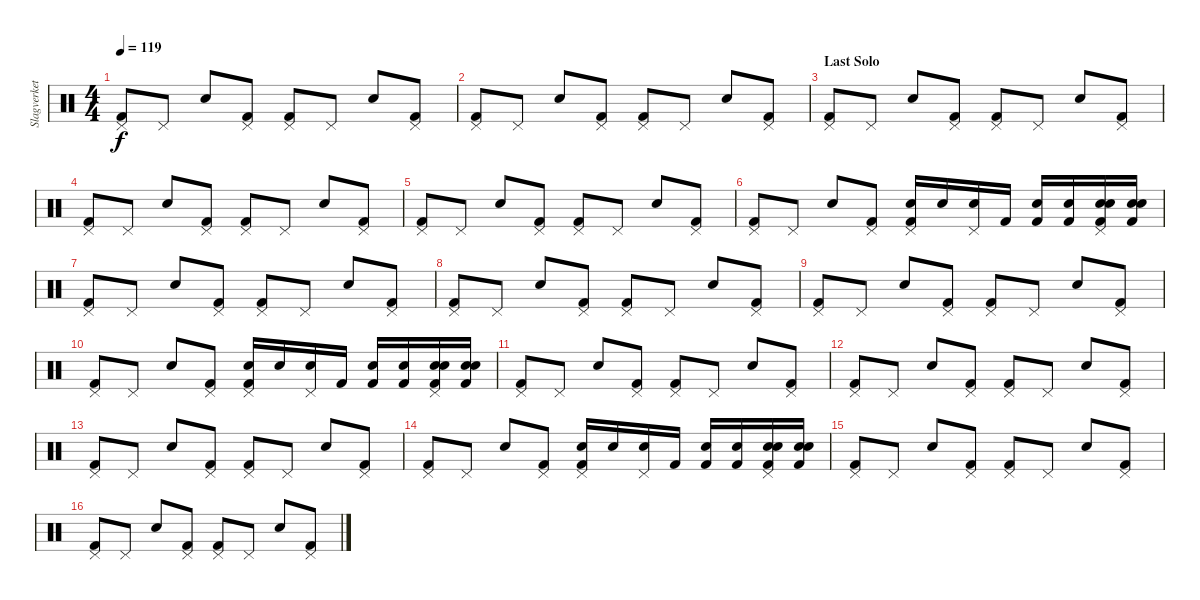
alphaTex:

\track ("Slagverket!" "Slagverket") {instrument percussion}
\staff {score}
\articulation defaults
\ts (4 4)
\tempo 119
\clef neutral
\ks c
("Pedal Hi-Hat (hit)" "Kick (hit) 2").8{dy f} "Pedal Hi-Hat (hit)".8 "Snare (hit) 2".8 ("Pedal Hi-Hat (hit)" "Kick (hit) 2").8 ("Pedal Hi-Hat (hit)" "Kick (hit) 2").8 "Pedal Hi-Hat (hit)".8 "Snare (hit) 2".8 ("Pedal Hi-Hat (hit)" "Kick (hit) 2").8 |
("Pedal Hi-Hat (hit)" "Kick (hit) 2").8 "Pedal Hi-Hat (hit)".8 "Snare (hit) 2".8 ("Pedal Hi-Hat (hit)" "Kick (hit) 2").8 ("Pedal Hi-Hat (hit)" "Kick (hit) 2").8 "Pedal Hi-Hat (hit)".8 "Snare (hit) 2".8 ("Pedal Hi-Hat (hit)" "Kick (hit) 2").8 |
\section ("" "Last Solo")
("Pedal Hi-Hat (hit)" "Kick (hit) 2").8 "Pedal Hi-Hat (hit)".8 "Snare (hit) 2".8 ("Pedal Hi-Hat (hit)" "Kick (hit) 2").8 ("Pedal Hi-Hat (hit)" "Kick (hit) 2").8 "Pedal Hi-Hat (hit)".8 "Snare (hit) 2".8 ("Pedal Hi-Hat (hit)" "Kick (hit) 2").8 |
("Pedal Hi-Hat (hit)" "Kick (hit) 2").8 "Pedal Hi-Hat (hit)".8 "Snare (hit) 2".8 ("Pedal Hi-Hat (hit)" "Kick (hit) 2").8 ("Pedal Hi-Hat (hit)" "Kick (hit) 2").8 "Pedal Hi-Hat (hit)".8 "Snare (hit) 2".8 ("Pedal Hi-Hat (hit)" "Kick (hit) 2").8 |
("Pedal Hi-Hat (hit)" "Kick (hit) 2").8 "Pedal Hi-Hat (hit)".8 "Snare (hit) 2".8 ("Pedal Hi-Hat (hit)" "Kick (hit) 2").8 ("Pedal Hi-Hat (hit)" "Kick (hit) 2").8 "Pedal Hi-Hat (hit)".8 "Snare (hit) 2".8 ("Pedal Hi-Hat (hit)" "Kick (hit) 2").8 |
("Pedal Hi-Hat (hit)" "Kick (hit) 2").8 "Pedal Hi-Hat (hit)".8 "Snare (hit) 2".8 ("Pedal Hi-Hat (hit)" "Kick (hit) 2").8 ("Pedal Hi-Hat (hit)" "Electric Snare (hit)" "Kick (hit) 2").16 "Electric Snare (hit)".16 ("Pedal Hi-Hat (hit)" "Electric Snare (hit)").16 "Kick (hit) 2".16 ("Snare (hit) 2" "Kick (hit) 2").16 ("Electric Snare (hit)" "Kick (hit) 2").16 ("Pedal Hi-Hat (hit)" "Snare (hit) 2" "Electric Snare (hit)" "Kick (hit) 2").16 ("Electric Snare (hit)" "Electric Snare (hit)" "Kick (hit) 2").16 |
("Pedal Hi-Hat (hit)" "Kick (hit) 2").8 "Pedal Hi-Hat (hit)".8 "Snare (hit) 2".8 ("Pedal Hi-Hat (hit)" "Kick (hit) 2").8 ("Pedal Hi-Hat (hit)" "Kick (hit) 2").8 "Pedal Hi-Hat (hit)".8 "Snare (hit) 2".8 ("Pedal Hi-Hat (hit)" "Kick (hit) 2").8 |
("Pedal Hi-Hat (hit)" "Kick (hit) 2").8 "Pedal Hi-Hat (hit)".8 "Snare (hit) 2".8 ("Pedal Hi-Hat (hit)" "Kick (hit) 2").8 ("Pedal Hi-Hat (hit)" "Kick (hit) 2").8 "Pedal Hi-Hat (hit)".8 "Snare (hit) 2".8 ("Pedal Hi-Hat (hit)" "Kick (hit) 2").8 |
("Pedal Hi-Hat (hit)" "Kick (hit) 2").8 "Pedal Hi-Hat (hit)".8 "Snare (hit) 2".8 ("Pedal Hi-Hat (hit)" "Kick (hit) 2").8 ("Pedal Hi-Hat (hit)" "Kick (hit) 2").8 "Pedal Hi-Hat (hit)".8 "Snare (hit) 2".8 ("Pedal Hi-Hat (hit)" "Kick (hit) 2").8 |
("Pedal Hi-Hat (hit)" "Kick (hit) 2").8 "Pedal Hi-Hat (hit)".8 "Snare (hit) 2".8 ("Pedal Hi-Hat (hit)" "Kick (hit) 2").8 ("Pedal Hi-Hat (hit)" "Electric Snare (hit)" "Kick (hit) 2").16 "Electric Snare (hit)".16 ("Pedal Hi-Hat (hit)" "Electric Snare (hit)").16 "Kick (hit) 2".16 ("Snare (hit) 2" "Kick (hit) 2").16 ("Electric Snare (hit)" "Kick (hit) 2").16 ("Pedal Hi-Hat (hit)" "Snare (hit) 2" "Electric Snare (hit)" "Kick (hit) 2").16 ("Electric Snare (hit)" "Electric Snare (hit)" "Kick (hit) 2").16 |
("Pedal Hi-Hat (hit)" "Kick (hit) 2").8 "Pedal Hi-Hat (hit)".8 "Snare (hit) 2".8 ("Pedal Hi-Hat (hit)" "Kick (hit) 2").8 ("Pedal Hi-Hat (hit)" "Kick (hit) 2").8 "Pedal Hi-Hat (hit)".8 "Snare (hit) 2".8 ("Pedal Hi-Hat (hit)" "Kick (hit) 2").8 |
("Pedal Hi-Hat (hit)" "Kick (hit) 2").8 "Pedal Hi-Hat (hit)".8 "Snare (hit) 2".8 ("Pedal Hi-Hat (hit)" "Kick (hit) 2").8 ("Pedal Hi-Hat (hit)" "Kick (hit) 2").8 "Pedal Hi-Hat (hit)".8 "Snare (hit) 2".8 ("Pedal Hi-Hat (hit)" "Kick (hit) 2").8 |
("Pedal Hi-Hat (hit)" "Kick (hit) 2").8 "Pedal Hi-Hat (hit)".8 "Snare (hit) 2".8 ("Pedal Hi-Hat (hit)" "Kick (hit) 2").8 ("Pedal Hi-Hat (hit)" "Kick (hit) 2").8 "Pedal Hi-Hat (hit)".8 "Snare (hit) 2".8 ("Pedal Hi-Hat (hit)" "Kick (hit) 2").8 |
("Pedal Hi-Hat (hit)" "Kick (hit) 2").8 "Pedal Hi-Hat (hit)".8 "Snare (hit) 2".8 ("Pedal Hi-Hat (hit)" "Kick (hit) 2").8 ("Pedal Hi-Hat (hit)" "Electric Snare (hit)" "Kick (hit) 2").16 "Electric Snare (hit)".16 ("Pedal Hi-Hat (hit)" "Electric Snare (hit)").16 "Kick (hit) 2".16 ("Snare (hit) 2" "Kick (hit) 2").16 ("Electric Snare (hit)" "Kick (hit) 2").16 ("Pedal Hi-Hat (hit)" "Snare (hit) 2" "Electric Snare (hit)" "Kick (hit) 2").16 ("Electric Snare (hit)" "Electric Snare (hit)" "Kick (hit) 2").16 |
("Pedal Hi-Hat (hit)" "Kick (hit) 2").8 "Pedal Hi-Hat (hit)".8 "Snare (hit) 2".8 ("Pedal Hi-Hat (hit)" "Kick (hit) 2").8 ("Pedal Hi-Hat (hit)" "Kick (hit) 2").8 "Pedal Hi-Hat (hit)".8 "Snare (hit) 2".8 ("Pedal Hi-Hat (hit)" "Kick (hit) 2").8 |
("Pedal Hi-Hat (hit)" "Kick (hit) 2").8 "Pedal Hi-Hat (hit)".8 "Snare (hit) 2".8 ("Pedal Hi-Hat (hit)" "Kick (hit) 2").8 ("Pedal Hi-Hat (hit)" "Kick (hit) 2").8 "Pedal Hi-Hat (hit)".8 "Snare (hit) 2".8 ("Pedal Hi-Hat (hit)" "Kick (hit) 2").8
